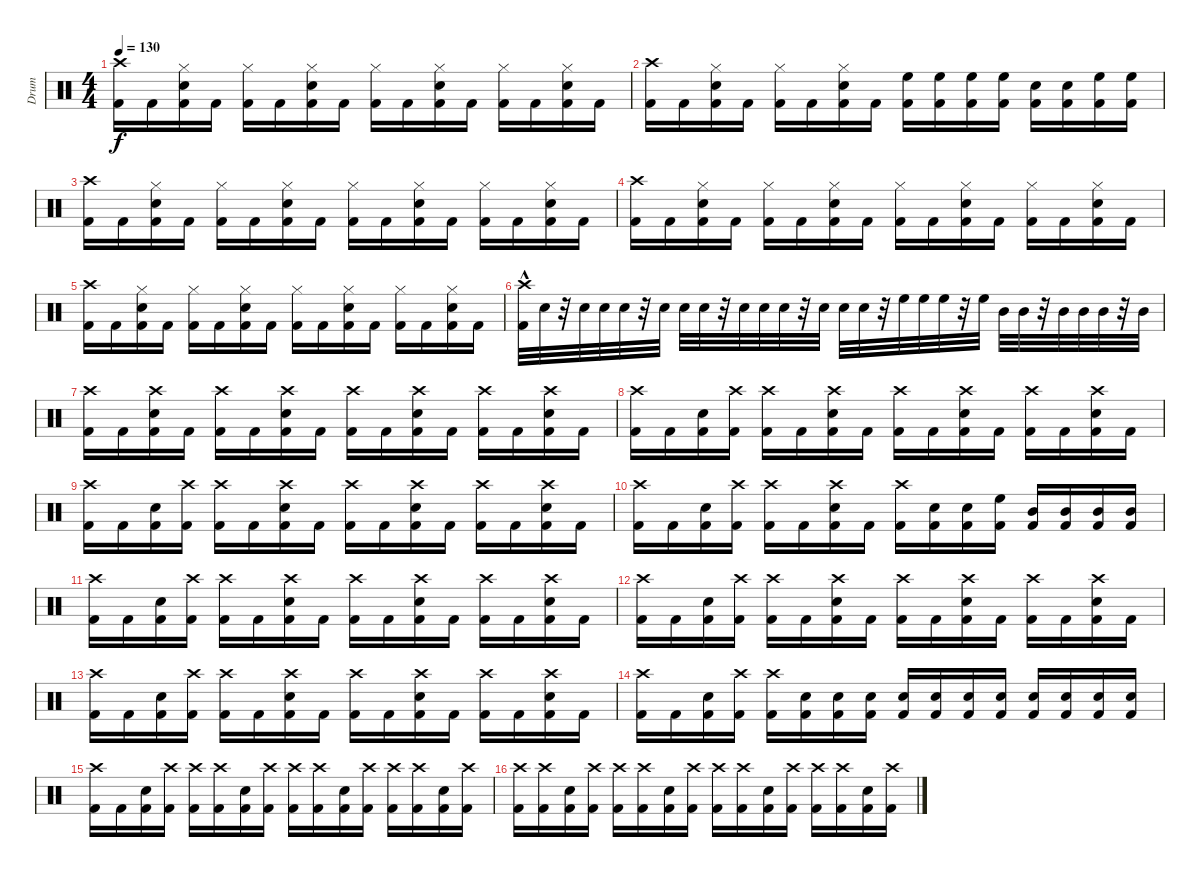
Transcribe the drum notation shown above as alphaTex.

\track ("Drum" "Drum") {instrument percussion}
\staff {score}
\articulation defaults
\ts (4 4)
\tempo 130
\clef neutral
\ks c
("Kick (hit) 2" "Crash high (hit)").16{dy f} "Kick (hit) 2".16 ("Kick (hit) 2" "Hi-Hat (closed)" "Snare (hit) 2").16 "Kick (hit) 2".16 ("Kick (hit) 2" "Hi-Hat (closed)").16 "Kick (hit) 2".16 ("Kick (hit) 2" "Hi-Hat (closed)" "Snare (hit) 2").16 "Kick (hit) 2".16 ("Kick (hit) 2" "Hi-Hat (closed)").16 "Kick (hit) 2".16 ("Kick (hit) 2" "Hi-Hat (closed)" "Snare (hit) 2").16 "Kick (hit) 2".16 ("Kick (hit) 2" "Hi-Hat (closed)").16 "Kick (hit) 2".16 ("Kick (hit) 2" "Hi-Hat (closed)" "Snare (hit) 2").16 "Kick (hit) 2".16 |
("Kick (hit) 2" "Crash high (hit)").16 "Kick (hit) 2".16 ("Kick (hit) 2" "Hi-Hat (closed)" "Snare (hit) 2").16 "Kick (hit) 2".16 ("Kick (hit) 2" "Hi-Hat (closed)").16 "Kick (hit) 2".16 ("Kick (hit) 2" "Hi-Hat (closed)" "Snare (hit) 2").16 "Kick (hit) 2".16 ("Kick (hit) 2" "High Floor Tom (hit)").16 ("Kick (hit) 2" "High Floor Tom (hit)").16 ("Kick (hit) 2" "High Floor Tom (hit)").16 ("Kick (hit) 2" "High Floor Tom (hit)").16 ("Kick (hit) 2" "Snare (hit) 2").16 ("Kick (hit) 2" "Snare (hit) 2").16 ("Kick (hit) 2" "High Floor Tom (hit)").16 ("Kick (hit) 2" "High Floor Tom (hit)").16 |
("Kick (hit) 2" "Crash high (hit)").16 "Kick (hit) 2".16 ("Kick (hit) 2" "Hi-Hat (closed)" "Snare (hit) 2").16 "Kick (hit) 2".16 ("Kick (hit) 2" "Hi-Hat (closed)").16 "Kick (hit) 2".16 ("Kick (hit) 2" "Hi-Hat (closed)" "Snare (hit) 2").16 "Kick (hit) 2".16 ("Kick (hit) 2" "Hi-Hat (closed)").16 "Kick (hit) 2".16 ("Kick (hit) 2" "Hi-Hat (closed)" "Snare (hit) 2").16 "Kick (hit) 2".16 ("Kick (hit) 2" "Hi-Hat (closed)").16 "Kick (hit) 2".16 ("Kick (hit) 2" "Hi-Hat (closed)" "Snare (hit) 2").16 "Kick (hit) 2".16 |
("Kick (hit) 2" "Crash high (hit)").16 "Kick (hit) 2".16 ("Kick (hit) 2" "Hi-Hat (closed)" "Snare (hit) 2").16 "Kick (hit) 2".16 ("Kick (hit) 2" "Hi-Hat (closed)").16 "Kick (hit) 2".16 ("Kick (hit) 2" "Hi-Hat (closed)" "Snare (hit) 2").16 "Kick (hit) 2".16 ("Kick (hit) 2" "Hi-Hat (closed)").16 "Kick (hit) 2".16 ("Kick (hit) 2" "Hi-Hat (closed)" "Snare (hit) 2").16 "Kick (hit) 2".16 ("Kick (hit) 2" "Hi-Hat (closed)").16 "Kick (hit) 2".16 ("Kick (hit) 2" "Hi-Hat (closed)" "Snare (hit) 2").16 "Kick (hit) 2".16 |
("Kick (hit) 2" "Crash high (hit)").16 "Kick (hit) 2".16 ("Kick (hit) 2" "Hi-Hat (closed)" "Snare (hit) 2").16 "Kick (hit) 2".16 ("Kick (hit) 2" "Hi-Hat (closed)").16 "Kick (hit) 2".16 ("Kick (hit) 2" "Hi-Hat (closed)" "Snare (hit) 2").16 "Kick (hit) 2".16 ("Kick (hit) 2" "Hi-Hat (closed)").16 "Kick (hit) 2".16 ("Kick (hit) 2" "Hi-Hat (closed)" "Snare (hit) 2").16 "Kick (hit) 2".16 ("Kick (hit) 2" "Hi-Hat (closed)").16 "Kick (hit) 2".16 ("Kick (hit) 2" "Hi-Hat (closed)" "Snare (hit) 2").16 "Kick (hit) 2".16 |
("Kick (hit) 2"{hac} "Crash high (hit)").32 "Snare (hit) 2".32 r.32 "Snare (hit) 2".32 "Snare (hit) 2".32 "Snare (hit) 2".32 r.32 "Snare (hit) 2".32 "Snare (hit) 2".32 "Snare (hit) 2".32 r.32 "Snare (hit) 2".32 "Snare (hit) 2".32 "Snare (hit) 2".32 r.32 "Snare (hit) 2".32 "Snare (hit) 2".32 "Snare (hit) 2".32 r.32 "High Floor Tom (hit)".32 "High Floor Tom (hit)".32 "High Floor Tom (hit)".32 r.32 "High Floor Tom (hit)".32 "Mid Tom (hit)".32 "Mid Tom (hit)".32 r.32 "Mid Tom (hit)".32 "Mid Tom (hit)".32 "Mid Tom (hit)".32 r.32 "Mid Tom (hit)".32 |
("Kick (hit) 2" "Crash high (hit)").16 "Kick (hit) 2".16 ("Kick (hit) 2" "Crash high (hit)" "Snare (hit) 2").16 "Kick (hit) 2".16 ("Kick (hit) 2" "Crash high (hit)").16 "Kick (hit) 2".16 ("Kick (hit) 2" "Crash high (hit)" "Snare (hit) 2").16 "Kick (hit) 2".16 ("Kick (hit) 2" "Crash high (hit)").16 "Kick (hit) 2".16 ("Kick (hit) 2" "Crash high (hit)" "Snare (hit) 2").16 "Kick (hit) 2".16 ("Kick (hit) 2" "Crash high (hit)").16 "Kick (hit) 2".16 ("Kick (hit) 2" "Crash high (hit)" "Snare (hit) 2").16 "Kick (hit) 2".16 |
("Kick (hit) 2" "Crash high (hit)").16 "Kick (hit) 2".16 ("Kick (hit) 2" "Snare (hit) 2").16 ("Kick (hit) 2" "Crash high (hit)").16 ("Kick (hit) 2" "Crash high (hit)").16 "Kick (hit) 2".16 ("Kick (hit) 2" "Crash high (hit)" "Snare (hit) 2").16 "Kick (hit) 2".16 ("Kick (hit) 2" "Crash high (hit)").16 "Kick (hit) 2".16 ("Kick (hit) 2" "Crash high (hit)" "Snare (hit) 2").16 "Kick (hit) 2".16 ("Kick (hit) 2" "Crash high (hit)").16 "Kick (hit) 2".16 ("Kick (hit) 2" "Crash high (hit)" "Snare (hit) 2").16 "Kick (hit) 2".16 |
("Kick (hit) 2" "Crash high (hit)").16 "Kick (hit) 2".16 ("Kick (hit) 2" "Snare (hit) 2").16 ("Kick (hit) 2" "Crash high (hit)").16 ("Kick (hit) 2" "Crash high (hit)").16 "Kick (hit) 2".16 ("Kick (hit) 2" "Crash high (hit)" "Snare (hit) 2").16 "Kick (hit) 2".16 ("Kick (hit) 2" "Crash high (hit)").16 "Kick (hit) 2".16 ("Kick (hit) 2" "Crash high (hit)" "Snare (hit) 2").16 "Kick (hit) 2".16 ("Kick (hit) 2" "Crash high (hit)").16 "Kick (hit) 2".16 ("Kick (hit) 2" "Crash high (hit)" "Snare (hit) 2").16 "Kick (hit) 2".16 |
("Kick (hit) 2" "Crash high (hit)").16 "Kick (hit) 2".16 ("Kick (hit) 2" "Snare (hit) 2").16 ("Kick (hit) 2" "Crash high (hit)").16 ("Kick (hit) 2" "Crash high (hit)").16 "Kick (hit) 2".16 ("Kick (hit) 2" "Crash high (hit)" "Snare (hit) 2").16 "Kick (hit) 2".16 ("Kick (hit) 2" "Crash high (hit)").16 ("Kick (hit) 2" "Snare (hit) 2").16 ("Kick (hit) 2" "Snare (hit) 2").16 ("Kick (hit) 2" "High Floor Tom (hit)").16 ("Kick (hit) 2" "Mid Tom (hit)").16 ("Kick (hit) 2" "Mid Tom (hit)").16 ("Kick (hit) 2" "Mid Tom (hit)").16 ("Kick (hit) 2" "Mid Tom (hit)").16 |
("Kick (hit) 2" "Crash high (hit)").16 "Kick (hit) 2".16 ("Kick (hit) 2" "Snare (hit) 2").16 ("Kick (hit) 2" "Crash high (hit)").16 ("Kick (hit) 2" "Crash high (hit)").16 "Kick (hit) 2".16 ("Kick (hit) 2" "Crash high (hit)" "Snare (hit) 2").16 "Kick (hit) 2".16 ("Kick (hit) 2" "Crash high (hit)").16 "Kick (hit) 2".16 ("Kick (hit) 2" "Crash high (hit)" "Snare (hit) 2").16 "Kick (hit) 2".16 ("Kick (hit) 2" "Crash high (hit)").16 "Kick (hit) 2".16 ("Kick (hit) 2" "Crash high (hit)" "Snare (hit) 2").16 "Kick (hit) 2".16 |
("Kick (hit) 2" "Crash high (hit)").16 "Kick (hit) 2".16 ("Kick (hit) 2" "Snare (hit) 2").16 ("Kick (hit) 2" "Crash high (hit)").16 ("Kick (hit) 2" "Crash high (hit)").16 "Kick (hit) 2".16 ("Kick (hit) 2" "Crash high (hit)" "Snare (hit) 2").16 "Kick (hit) 2".16 ("Kick (hit) 2" "Crash high (hit)").16 "Kick (hit) 2".16 ("Kick (hit) 2" "Crash high (hit)" "Snare (hit) 2").16 "Kick (hit) 2".16 ("Kick (hit) 2" "Crash high (hit)").16 "Kick (hit) 2".16 ("Kick (hit) 2" "Crash high (hit)" "Snare (hit) 2").16 "Kick (hit) 2".16 |
("Kick (hit) 2" "Crash high (hit)").16 "Kick (hit) 2".16 ("Kick (hit) 2" "Snare (hit) 2").16 ("Kick (hit) 2" "Crash high (hit)").16 ("Kick (hit) 2" "Crash high (hit)").16 "Kick (hit) 2".16 ("Kick (hit) 2" "Crash high (hit)" "Snare (hit) 2").16 "Kick (hit) 2".16 ("Kick (hit) 2" "Crash high (hit)").16 "Kick (hit) 2".16 ("Kick (hit) 2" "Crash high (hit)" "Snare (hit) 2").16 "Kick (hit) 2".16 ("Kick (hit) 2" "Crash high (hit)").16 "Kick (hit) 2".16 ("Kick (hit) 2" "Crash high (hit)" "Snare (hit) 2").16 "Kick (hit) 2".16 |
("Crash high (hit)" "Kick (hit) 2").16 "Kick (hit) 2".16 ("Snare (hit) 2" "Kick (hit) 2").16 ("Crash high (hit)" "Kick (hit) 2").16 ("Kick (hit) 2" "Crash high (hit)").16 ("Kick (hit) 2" "Snare (hit) 2").16 ("Kick (hit) 2" "Snare (hit) 2").16 ("Kick (hit) 2" "Snare (hit) 2").16 ("Kick (hit) 2" "Snare (hit) 2").16 ("Kick (hit) 2" "Snare (hit) 2").16 ("Kick (hit) 2" "Snare (hit) 2").16 ("Kick (hit) 2" "Snare (hit) 2").16 ("Kick (hit) 2" "Snare (hit) 2").16 ("Kick (hit) 2" "Snare (hit) 2").16 ("Kick (hit) 2" "Snare (hit) 2").16 ("Kick (hit) 2" "Snare (hit) 2").16 |
("Crash high (hit)" "Kick (hit) 2").16 "Kick (hit) 2".16 ("Kick (hit) 2" "Snare (hit) 2").16 ("Kick (hit) 2" "Crash high (hit)").16 ("Kick (hit) 2" "Crash high (hit)").16 ("Kick (hit) 2" "Crash high (hit)").16 ("Kick (hit) 2" "Snare (hit) 2").16 ("Kick (hit) 2" "Crash high (hit)").16 ("Kick (hit) 2" "Crash high (hit)").16 ("Kick (hit) 2" "Crash high (hit)").16 ("Kick (hit) 2" "Snare (hit) 2").16 ("Kick (hit) 2" "Crash high (hit)").16 ("Kick (hit) 2" "Crash high (hit)").16 ("Kick (hit) 2" "Crash high (hit)").16 ("Kick (hit) 2" "Snare (hit) 2").16 ("Kick (hit) 2" "Crash high (hit)").16 |
("Kick (hit) 2" "Crash high (hit)").16 ("Kick (hit) 2" "Crash high (hit)").16 ("Kick (hit) 2" "Snare (hit) 2").16 ("Kick (hit) 2" "Crash high (hit)").16 ("Kick (hit) 2" "Crash high (hit)").16 ("Kick (hit) 2" "Crash high (hit)").16 ("Kick (hit) 2" "Snare (hit) 2").16 ("Kick (hit) 2" "Crash high (hit)").16 ("Kick (hit) 2" "Crash high (hit)").16 ("Kick (hit) 2" "Crash high (hit)").16 ("Kick (hit) 2" "Snare (hit) 2").16 ("Kick (hit) 2" "Crash high (hit)").16 ("Kick (hit) 2" "Crash high (hit)").16 ("Kick (hit) 2" "Crash high (hit)").16 ("Kick (hit) 2" "Snare (hit) 2").16 ("Kick (hit) 2" "Crash high (hit)").16
